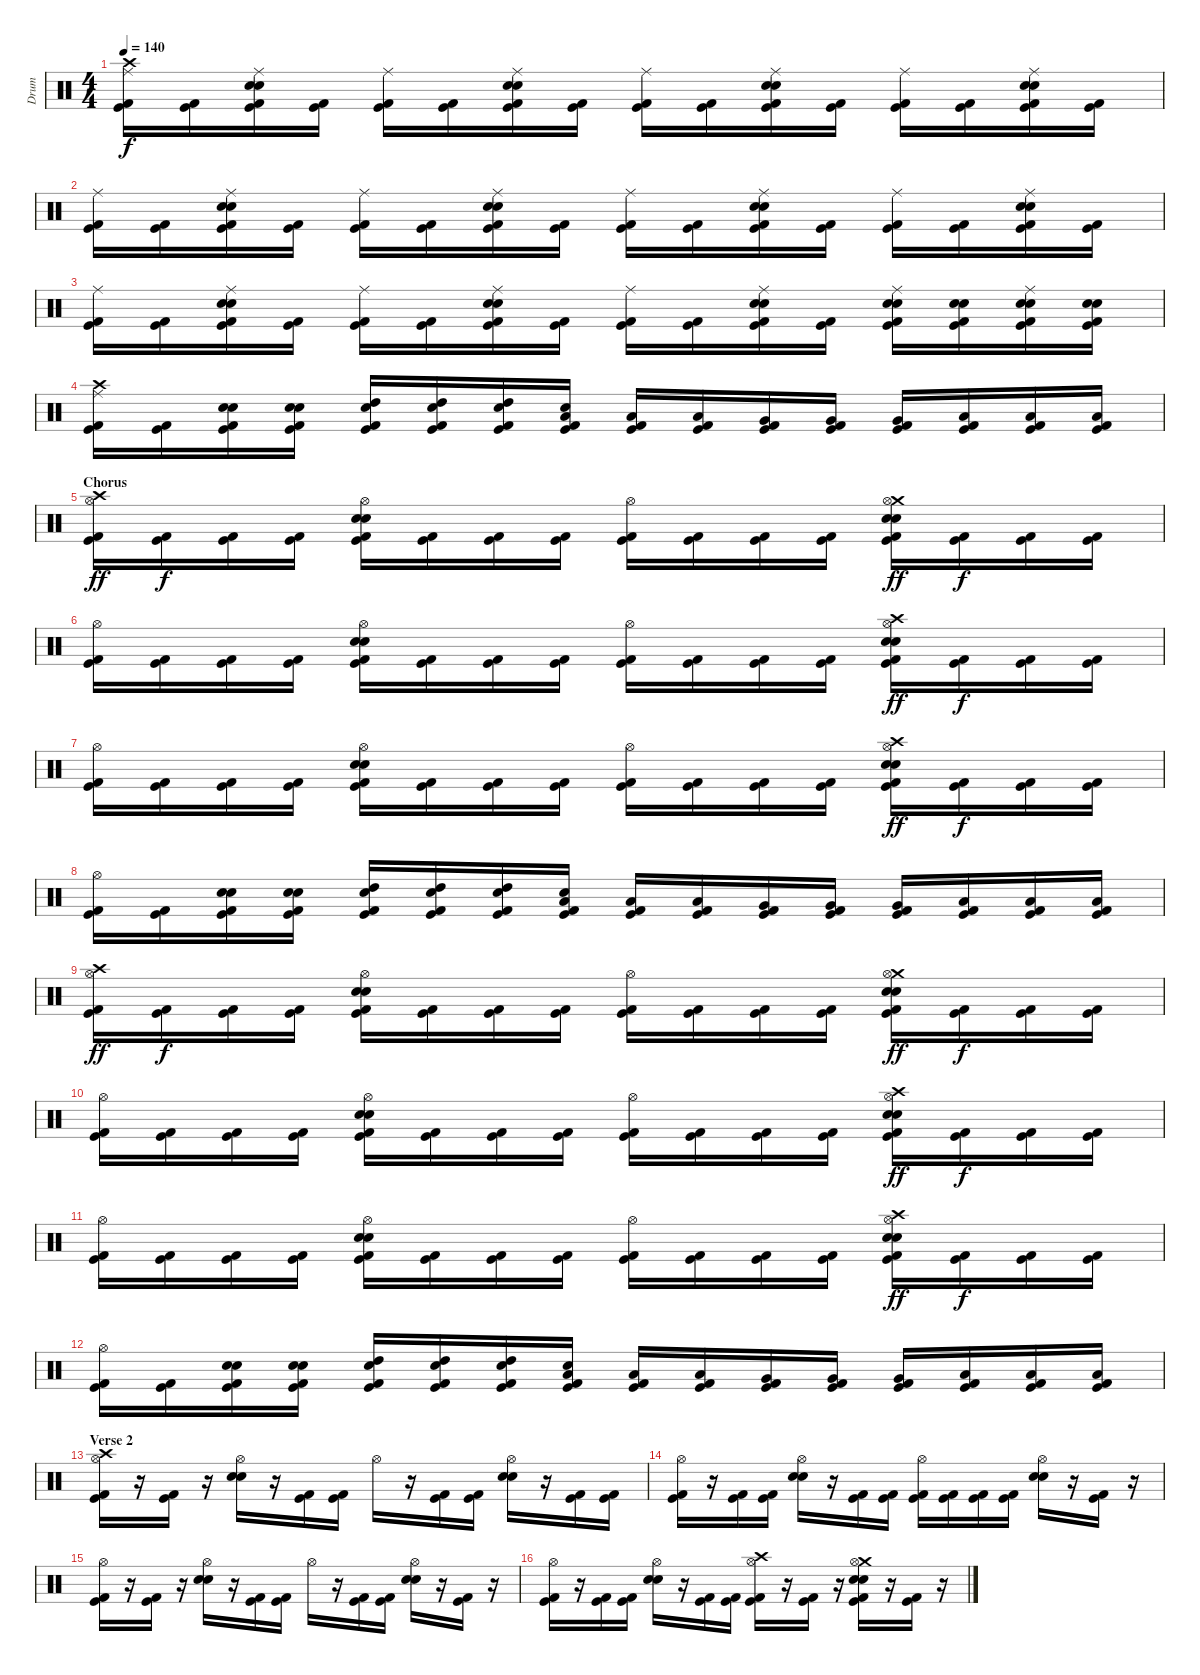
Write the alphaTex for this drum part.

\track ("Drum" "Drum") {instrument percussion}
\staff {score}
\articulation defaults
\ts (4 4)
\tempo 140
\clef neutral
\ks c
("Crash high (hit)" "Ride (middle)" "Kick (hit)" "Kick (hit) 2").16{dy f} ("Kick (hit)" "Kick (hit) 2").16 ("Ride (middle)" "Snare (hit) 2" "Electric Snare (hit)" "Kick (hit)" "Kick (hit) 2").16 ("Kick (hit)" "Kick (hit) 2").16 ("Ride (middle)" "Kick (hit)" "Kick (hit) 2").16 ("Kick (hit)" "Kick (hit) 2").16 ("Ride (middle)" "Snare (hit) 2" "Electric Snare (hit)" "Kick (hit)" "Kick (hit) 2").16 ("Kick (hit)" "Kick (hit) 2").16 ("Ride (middle)" "Kick (hit)" "Kick (hit) 2").16 ("Kick (hit)" "Kick (hit) 2").16 ("Ride (middle)" "Snare (hit) 2" "Electric Snare (hit)" "Kick (hit)" "Kick (hit) 2").16 ("Kick (hit)" "Kick (hit) 2").16 ("Ride (middle)" "Kick (hit)" "Kick (hit) 2").16 ("Kick (hit)" "Kick (hit) 2").16 ("Ride (middle)" "Snare (hit) 2" "Electric Snare (hit)" "Kick (hit)" "Kick (hit) 2").16 ("Kick (hit)" "Kick (hit) 2").16 |
("Ride (middle)" "Kick (hit)" "Kick (hit) 2").16 ("Kick (hit)" "Kick (hit) 2").16 ("Ride (middle)" "Snare (hit) 2" "Electric Snare (hit)" "Kick (hit)" "Kick (hit) 2").16 ("Kick (hit)" "Kick (hit) 2").16 ("Ride (middle)" "Kick (hit)" "Kick (hit) 2").16 ("Kick (hit)" "Kick (hit) 2").16 ("Ride (middle)" "Snare (hit) 2" "Electric Snare (hit)" "Kick (hit)" "Kick (hit) 2").16 ("Kick (hit)" "Kick (hit) 2").16 ("Ride (middle)" "Kick (hit)" "Kick (hit) 2").16 ("Kick (hit)" "Kick (hit) 2").16 ("Ride (middle)" "Snare (hit) 2" "Electric Snare (hit)" "Kick (hit)" "Kick (hit) 2").16 ("Kick (hit)" "Kick (hit) 2").16 ("Ride (middle)" "Kick (hit)" "Kick (hit) 2").16 ("Kick (hit)" "Kick (hit) 2").16 ("Ride (middle)" "Snare (hit) 2" "Electric Snare (hit)" "Kick (hit)" "Kick (hit) 2").16 ("Kick (hit)" "Kick (hit) 2").16 |
("Ride (middle)" "Kick (hit)" "Kick (hit) 2").16 ("Kick (hit)" "Kick (hit) 2").16 ("Ride (middle)" "Snare (hit) 2" "Electric Snare (hit)" "Kick (hit)" "Kick (hit) 2").16 ("Kick (hit)" "Kick (hit) 2").16 ("Ride (middle)" "Kick (hit)" "Kick (hit) 2").16 ("Kick (hit)" "Kick (hit) 2").16 ("Ride (middle)" "Snare (hit) 2" "Electric Snare (hit)" "Kick (hit)" "Kick (hit) 2").16 ("Kick (hit)" "Kick (hit) 2").16 ("Ride (middle)" "Kick (hit)" "Kick (hit) 2").16 ("Kick (hit)" "Kick (hit) 2").16 ("Ride (middle)" "Snare (hit) 2" "Electric Snare (hit)" "Kick (hit)" "Kick (hit) 2").16 ("Kick (hit)" "Kick (hit) 2").16 ("Ride (middle)" "Snare (hit) 2" "Electric Snare (hit)" "Kick (hit)" "Kick (hit) 2").16 ("Snare (hit) 2" "Electric Snare (hit)" "Kick (hit)" "Kick (hit) 2").16 ("Ride (middle)" "Snare (hit) 2" "Electric Snare (hit)" "Kick (hit)" "Kick (hit) 2").16 ("Snare (hit) 2" "Electric Snare (hit)" "Kick (hit)" "Kick (hit) 2").16 |
("Crash high (hit)" "Ride (middle)" "Kick (hit)" "Kick (hit) 2").16 ("Kick (hit)" "Kick (hit) 2").16 ("Snare (hit) 2" "Electric Snare (hit)" "Kick (hit)" "Kick (hit) 2").16 ("Snare (hit) 2" "Electric Snare (hit)" "Kick (hit)" "Kick (hit) 2").16 ("High Tom (hit)" "Electric Snare (hit)" "Kick (hit)" "Kick (hit) 2").16 ("High Tom (hit)" "Electric Snare (hit)" "Kick (hit)" "Kick (hit) 2").16 ("High Tom (hit)" "Electric Snare (hit)" "Kick (hit)" "Kick (hit) 2").16 ("Low Tom (hit)" "Electric Snare (hit)" "Kick (hit)" "Kick (hit) 2").16 ("Low Tom (hit)" "Kick (hit)" "Kick (hit) 2").16 ("Low Tom (hit)" "Kick (hit)" "Kick (hit) 2").16 ("Very Low Tom (hit)" "Kick (hit)" "Kick (hit) 2").16 ("Very Low Tom (hit)" "Kick (hit)" "Kick (hit) 2").16 ("Very Low Tom (hit)" "Kick (hit)" "Kick (hit) 2").16 ("Low Floor Tom (hit)" "Kick (hit)" "Kick (hit) 2").16 ("Low Floor Tom (hit)" "Kick (hit)" "Kick (hit) 2").16 ("Low Floor Tom (hit)" "Kick (hit)" "Kick (hit) 2").16 |
\section ("" "Chorus")
("Crash high (hit)" "Hi-Hat (open)" "Kick (hit)" "Kick (hit) 2").16{dy ff} ("Kick (hit)" "Kick (hit) 2").16{dy f} ("Kick (hit)" "Kick (hit) 2").16 ("Kick (hit)" "Kick (hit) 2").16 ("Hi-Hat (open)" "Snare (hit) 2" "Electric Snare (hit)" "Kick (hit)" "Kick (hit) 2").16 ("Kick (hit)" "Kick (hit) 2").16 ("Kick (hit)" "Kick (hit) 2").16 ("Kick (hit)" "Kick (hit) 2").16 ("Hi-Hat (open)" "Kick (hit)" "Kick (hit) 2").16 ("Kick (hit)" "Kick (hit) 2").16 ("Kick (hit)" "Kick (hit) 2").16 ("Kick (hit)" "Kick (hit) 2").16 ("Crash medium (hit)" "Hi-Hat (open)" "Snare (hit) 2" "Electric Snare (hit)" "Kick (hit)" "Kick (hit) 2").16{dy ff} ("Kick (hit)" "Kick (hit) 2").16{dy f} ("Kick (hit)" "Kick (hit) 2").16 ("Kick (hit)" "Kick (hit) 2").16 |
("Hi-Hat (open)" "Kick (hit)" "Kick (hit) 2").16 ("Kick (hit)" "Kick (hit) 2").16 ("Kick (hit)" "Kick (hit) 2").16 ("Kick (hit)" "Kick (hit) 2").16 ("Hi-Hat (open)" "Snare (hit) 2" "Electric Snare (hit)" "Kick (hit)" "Kick (hit) 2").16 ("Kick (hit)" "Kick (hit) 2").16 ("Kick (hit)" "Kick (hit) 2").16 ("Kick (hit)" "Kick (hit) 2").16 ("Hi-Hat (open)" "Kick (hit)" "Kick (hit) 2").16 ("Kick (hit)" "Kick (hit) 2").16 ("Kick (hit)" "Kick (hit) 2").16 ("Kick (hit)" "Kick (hit) 2").16 ("Crash high (hit)" "Hi-Hat (open)" "Snare (hit) 2" "Electric Snare (hit)" "Kick (hit)" "Kick (hit) 2").16{dy ff} ("Kick (hit)" "Kick (hit) 2").16{dy f} ("Kick (hit)" "Kick (hit) 2").16 ("Kick (hit)" "Kick (hit) 2").16 |
("Hi-Hat (open)" "Kick (hit)" "Kick (hit) 2").16 ("Kick (hit)" "Kick (hit) 2").16 ("Kick (hit)" "Kick (hit) 2").16 ("Kick (hit)" "Kick (hit) 2").16 ("Hi-Hat (open)" "Snare (hit) 2" "Electric Snare (hit)" "Kick (hit)" "Kick (hit) 2").16 ("Kick (hit)" "Kick (hit) 2").16 ("Kick (hit)" "Kick (hit) 2").16 ("Kick (hit)" "Kick (hit) 2").16 ("Hi-Hat (open)" "Kick (hit)" "Kick (hit) 2").16 ("Kick (hit)" "Kick (hit) 2").16 ("Kick (hit)" "Kick (hit) 2").16 ("Kick (hit)" "Kick (hit) 2").16 ("Crash high (hit)" "Hi-Hat (open)" "Snare (hit) 2" "Electric Snare (hit)" "Kick (hit)" "Kick (hit) 2").16{dy ff} ("Kick (hit)" "Kick (hit) 2").16{dy f} ("Kick (hit)" "Kick (hit) 2").16 ("Kick (hit)" "Kick (hit) 2").16 |
("Hi-Hat (open)" "Kick (hit)" "Kick (hit) 2").16 ("Kick (hit)" "Kick (hit) 2").16 ("Snare (hit) 2" "Electric Snare (hit)" "Kick (hit)" "Kick (hit) 2").16 ("Snare (hit) 2" "Electric Snare (hit)" "Kick (hit)" "Kick (hit) 2").16 ("High Tom (hit)" "Electric Snare (hit)" "Kick (hit)" "Kick (hit) 2").16 ("High Tom (hit)" "Electric Snare (hit)" "Kick (hit)" "Kick (hit) 2").16 ("High Tom (hit)" "Electric Snare (hit)" "Kick (hit)" "Kick (hit) 2").16 ("Low Tom (hit)" "Electric Snare (hit)" "Kick (hit)" "Kick (hit) 2").16 ("Low Tom (hit)" "Kick (hit)" "Kick (hit) 2").16 ("Low Tom (hit)" "Kick (hit)" "Kick (hit) 2").16 ("Very Low Tom (hit)" "Kick (hit)" "Kick (hit) 2").16 ("Very Low Tom (hit)" "Kick (hit)" "Kick (hit) 2").16 ("Very Low Tom (hit)" "Kick (hit)" "Kick (hit) 2").16 ("Low Floor Tom (hit)" "Kick (hit)" "Kick (hit) 2").16 ("Low Floor Tom (hit)" "Kick (hit)" "Kick (hit) 2").16 ("Low Floor Tom (hit)" "Kick (hit)" "Kick (hit) 2").16 |
("Crash high (hit)" "Hi-Hat (open)" "Kick (hit)" "Kick (hit) 2").16{dy ff} ("Kick (hit)" "Kick (hit) 2").16{dy f} ("Kick (hit)" "Kick (hit) 2").16 ("Kick (hit)" "Kick (hit) 2").16 ("Hi-Hat (open)" "Snare (hit) 2" "Electric Snare (hit)" "Kick (hit)" "Kick (hit) 2").16 ("Kick (hit)" "Kick (hit) 2").16 ("Kick (hit)" "Kick (hit) 2").16 ("Kick (hit)" "Kick (hit) 2").16 ("Hi-Hat (open)" "Kick (hit)" "Kick (hit) 2").16 ("Kick (hit)" "Kick (hit) 2").16 ("Kick (hit)" "Kick (hit) 2").16 ("Kick (hit)" "Kick (hit) 2").16 ("Crash medium (hit)" "Hi-Hat (open)" "Snare (hit) 2" "Electric Snare (hit)" "Kick (hit)" "Kick (hit) 2").16{dy ff} ("Kick (hit)" "Kick (hit) 2").16{dy f} ("Kick (hit)" "Kick (hit) 2").16 ("Kick (hit)" "Kick (hit) 2").16 |
("Hi-Hat (open)" "Kick (hit)" "Kick (hit) 2").16 ("Kick (hit)" "Kick (hit) 2").16 ("Kick (hit)" "Kick (hit) 2").16 ("Kick (hit)" "Kick (hit) 2").16 ("Hi-Hat (open)" "Snare (hit) 2" "Electric Snare (hit)" "Kick (hit)" "Kick (hit) 2").16 ("Kick (hit)" "Kick (hit) 2").16 ("Kick (hit)" "Kick (hit) 2").16 ("Kick (hit)" "Kick (hit) 2").16 ("Hi-Hat (open)" "Kick (hit)" "Kick (hit) 2").16 ("Kick (hit)" "Kick (hit) 2").16 ("Kick (hit)" "Kick (hit) 2").16 ("Kick (hit)" "Kick (hit) 2").16 ("Crash high (hit)" "Hi-Hat (open)" "Snare (hit) 2" "Electric Snare (hit)" "Kick (hit)" "Kick (hit) 2").16{dy ff} ("Kick (hit)" "Kick (hit) 2").16{dy f} ("Kick (hit)" "Kick (hit) 2").16 ("Kick (hit)" "Kick (hit) 2").16 |
("Hi-Hat (open)" "Kick (hit)" "Kick (hit) 2").16 ("Kick (hit)" "Kick (hit) 2").16 ("Kick (hit)" "Kick (hit) 2").16 ("Kick (hit)" "Kick (hit) 2").16 ("Hi-Hat (open)" "Snare (hit) 2" "Electric Snare (hit)" "Kick (hit)" "Kick (hit) 2").16 ("Kick (hit)" "Kick (hit) 2").16 ("Kick (hit)" "Kick (hit) 2").16 ("Kick (hit)" "Kick (hit) 2").16 ("Hi-Hat (open)" "Kick (hit)" "Kick (hit) 2").16 ("Kick (hit)" "Kick (hit) 2").16 ("Kick (hit)" "Kick (hit) 2").16 ("Kick (hit)" "Kick (hit) 2").16 ("Crash high (hit)" "Hi-Hat (open)" "Snare (hit) 2" "Electric Snare (hit)" "Kick (hit)" "Kick (hit) 2").16{dy ff} ("Kick (hit)" "Kick (hit) 2").16{dy f} ("Kick (hit)" "Kick (hit) 2").16 ("Kick (hit)" "Kick (hit) 2").16 |
("Hi-Hat (open)" "Kick (hit)" "Kick (hit) 2").16 ("Kick (hit)" "Kick (hit) 2").16 ("Snare (hit) 2" "Electric Snare (hit)" "Kick (hit)" "Kick (hit) 2").16 ("Snare (hit) 2" "Electric Snare (hit)" "Kick (hit)" "Kick (hit) 2").16 ("High Tom (hit)" "Electric Snare (hit)" "Kick (hit)" "Kick (hit) 2").16 ("High Tom (hit)" "Electric Snare (hit)" "Kick (hit)" "Kick (hit) 2").16 ("High Tom (hit)" "Electric Snare (hit)" "Kick (hit)" "Kick (hit) 2").16 ("Low Tom (hit)" "Electric Snare (hit)" "Kick (hit)" "Kick (hit) 2").16 ("Low Tom (hit)" "Kick (hit)" "Kick (hit) 2").16 ("Low Tom (hit)" "Kick (hit)" "Kick (hit) 2").16 ("Very Low Tom (hit)" "Kick (hit)" "Kick (hit) 2").16 ("Very Low Tom (hit)" "Kick (hit)" "Kick (hit) 2").16 ("Very Low Tom (hit)" "Kick (hit)" "Kick (hit) 2").16 ("Low Floor Tom (hit)" "Kick (hit)" "Kick (hit) 2").16 ("Low Floor Tom (hit)" "Kick (hit)" "Kick (hit) 2").16 ("Low Floor Tom (hit)" "Kick (hit)" "Kick (hit) 2").16 |
\section ("" "Verse 2")
("Crash high (hit)" "Hi-Hat (open)" "Kick (hit)" "Kick (hit) 2").16 r.16 ("Kick (hit)" "Kick (hit) 2").16 r.16 ("Hi-Hat (open)" "Snare (hit) 2" "Electric Snare (hit)").16 r.16 ("Kick (hit)" "Kick (hit) 2").16 ("Kick (hit)" "Kick (hit) 2").16 "Hi-Hat (open)".16 r.16 ("Kick (hit)" "Kick (hit) 2").16 ("Kick (hit)" "Kick (hit) 2").16 ("Hi-Hat (open)" "Snare (hit) 2" "Electric Snare (hit)").16 r.16 ("Kick (hit)" "Kick (hit) 2").16 ("Kick (hit)" "Kick (hit) 2").16 |
("Hi-Hat (open)" "Kick (hit)" "Kick (hit) 2").16 r.16 ("Kick (hit)" "Kick (hit) 2").16 ("Kick (hit)" "Kick (hit) 2").16 ("Hi-Hat (open)" "Snare (hit) 2" "Electric Snare (hit)").16 r.16 ("Kick (hit)" "Kick (hit) 2").16 ("Kick (hit)" "Kick (hit) 2").16 ("Hi-Hat (open)" "Kick (hit)" "Kick (hit) 2").16 ("Kick (hit)" "Kick (hit) 2").16 ("Kick (hit)" "Kick (hit) 2").16 ("Kick (hit)" "Kick (hit) 2").16 ("Hi-Hat (open)" "Snare (hit) 2" "Electric Snare (hit)").16 r.16 ("Kick (hit)" "Kick (hit) 2").16 r.16 |
("Hi-Hat (open)" "Kick (hit)" "Kick (hit) 2").16 r.16 ("Kick (hit)" "Kick (hit) 2").16 r.16 ("Hi-Hat (open)" "Snare (hit) 2" "Electric Snare (hit)").16 r.16 ("Kick (hit)" "Kick (hit) 2").16 ("Kick (hit)" "Kick (hit) 2").16 "Hi-Hat (open)".16 r.16 ("Kick (hit)" "Kick (hit) 2").16 ("Kick (hit)" "Kick (hit) 2").16 ("Hi-Hat (open)" "Snare (hit) 2" "Electric Snare (hit)").16 r.16 ("Kick (hit)" "Kick (hit) 2").16 r.16 |
("Hi-Hat (open)" "Kick (hit)" "Kick (hit) 2").16 r.16 ("Kick (hit)" "Kick (hit) 2").16 ("Kick (hit)" "Kick (hit) 2").16 ("Hi-Hat (open)" "Snare (hit) 2" "Electric Snare (hit)").16 r.16 ("Kick (hit)" "Kick (hit) 2").16 ("Kick (hit)" "Kick (hit) 2").16 ("Crash high (hit)" "Hi-Hat (open)" "Kick (hit)" "Kick (hit) 2").16 r.16 ("Kick (hit)" "Kick (hit) 2").16 r.16 ("Crash medium (hit)" "Hi-Hat (open)" "Snare (hit) 2" "Electric Snare (hit)" "Kick (hit)" "Kick (hit) 2").16 r.16 ("Kick (hit)" "Kick (hit) 2").16 r.16
